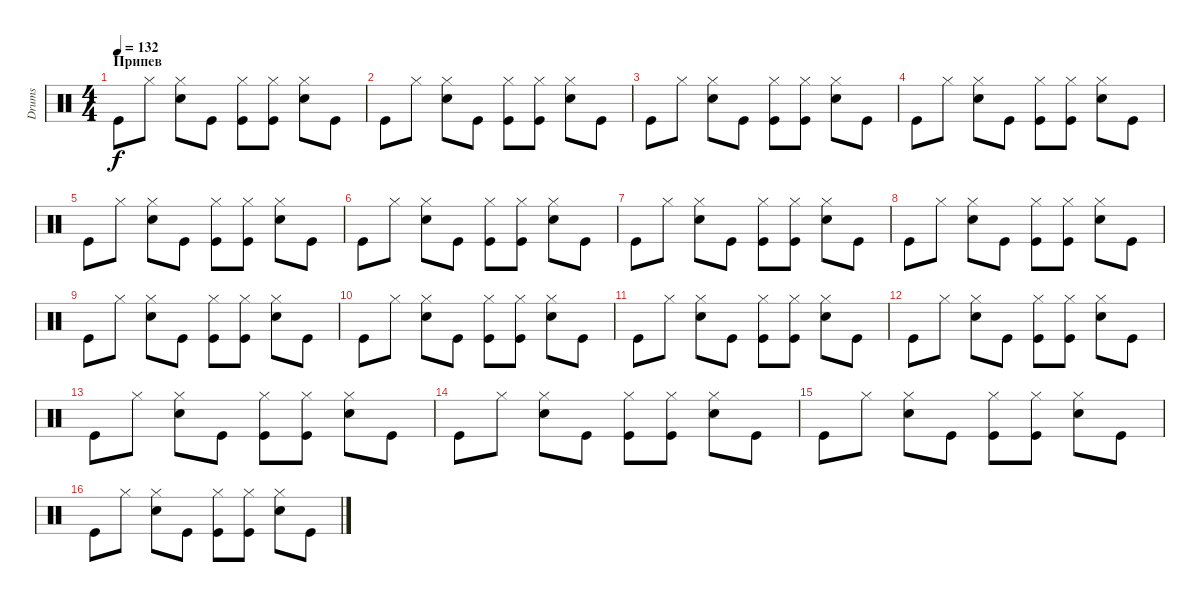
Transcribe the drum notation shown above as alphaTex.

\track ("Drums" "Drums") {instrument percussion}
\staff {score}
\articulation defaults
\ts (4 4)
\section ("" "Припев")
\tempo 132
\clef neutral
\ks c "Kick (hit)".8{dy f} "Hi-Hat (closed)".8
("Hi-Hat (closed)" "Snare (hit) 2").8 "Kick (hit)".8 ("Hi-Hat (closed)" "Kick (hit)").8 ("Hi-Hat (closed)" "Kick (hit)").8 ("Hi-Hat (closed)" "Snare (hit) 2").8 "Kick (hit)".8 |
"Kick (hit)".8 "Hi-Hat (closed)".8 ("Hi-Hat (closed)" "Snare (hit) 2").8 "Kick (hit)".8 ("Hi-Hat (closed)" "Kick (hit)").8 ("Hi-Hat (closed)" "Kick (hit)").8 ("Hi-Hat (closed)" "Snare (hit) 2").8 "Kick (hit)".8 |
"Kick (hit)".8 "Hi-Hat (closed)".8 ("Hi-Hat (closed)" "Snare (hit) 2").8 "Kick (hit)".8 ("Hi-Hat (closed)" "Kick (hit)").8 ("Hi-Hat (closed)" "Kick (hit)").8 ("Hi-Hat (closed)" "Snare (hit) 2").8 "Kick (hit)".8 |
"Kick (hit)".8 "Hi-Hat (closed)".8 ("Hi-Hat (closed)" "Snare (hit) 2").8 "Kick (hit)".8 ("Hi-Hat (closed)" "Kick (hit)").8 ("Hi-Hat (closed)" "Kick (hit)").8 ("Hi-Hat (closed)" "Snare (hit) 2").8 "Kick (hit)".8 |
"Kick (hit)".8 "Hi-Hat (closed)".8 ("Hi-Hat (closed)" "Snare (hit) 2").8 "Kick (hit)".8 ("Hi-Hat (closed)" "Kick (hit)").8 ("Hi-Hat (closed)" "Kick (hit)").8 ("Hi-Hat (closed)" "Snare (hit) 2").8 "Kick (hit)".8 |
"Kick (hit)".8 "Hi-Hat (closed)".8 ("Hi-Hat (closed)" "Snare (hit) 2").8 "Kick (hit)".8 ("Hi-Hat (closed)" "Kick (hit)").8 ("Hi-Hat (closed)" "Kick (hit)").8 ("Hi-Hat (closed)" "Snare (hit) 2").8 "Kick (hit)".8 |
"Kick (hit)".8 "Hi-Hat (closed)".8 ("Hi-Hat (closed)" "Snare (hit) 2").8 "Kick (hit)".8 ("Hi-Hat (closed)" "Kick (hit)").8 ("Hi-Hat (closed)" "Kick (hit)").8 ("Hi-Hat (closed)" "Snare (hit) 2").8 "Kick (hit)".8 |
"Kick (hit)".8 "Hi-Hat (closed)".8 ("Hi-Hat (closed)" "Snare (hit) 2").8 "Kick (hit)".8 ("Hi-Hat (closed)" "Kick (hit)").8 ("Hi-Hat (closed)" "Kick (hit)").8 ("Hi-Hat (closed)" "Snare (hit) 2").8 "Kick (hit)".8 |
"Kick (hit)".8 "Hi-Hat (closed)".8 ("Hi-Hat (closed)" "Snare (hit) 2").8 "Kick (hit)".8 ("Hi-Hat (closed)" "Kick (hit)").8 ("Hi-Hat (closed)" "Kick (hit)").8 ("Hi-Hat (closed)" "Snare (hit) 2").8 "Kick (hit)".8 |
"Kick (hit)".8 "Hi-Hat (closed)".8 ("Hi-Hat (closed)" "Snare (hit) 2").8 "Kick (hit)".8 ("Hi-Hat (closed)" "Kick (hit)").8 ("Hi-Hat (closed)" "Kick (hit)").8 ("Hi-Hat (closed)" "Snare (hit) 2").8 "Kick (hit)".8 |
"Kick (hit)".8 "Hi-Hat (closed)".8 ("Hi-Hat (closed)" "Snare (hit) 2").8 "Kick (hit)".8 ("Hi-Hat (closed)" "Kick (hit)").8 ("Hi-Hat (closed)" "Kick (hit)").8 ("Hi-Hat (closed)" "Snare (hit) 2").8 "Kick (hit)".8 |
"Kick (hit)".8 "Hi-Hat (closed)".8 ("Hi-Hat (closed)" "Snare (hit) 2").8 "Kick (hit)".8 ("Hi-Hat (closed)" "Kick (hit)").8 ("Hi-Hat (closed)" "Kick (hit)").8 ("Hi-Hat (closed)" "Snare (hit) 2").8 "Kick (hit)".8 |
"Kick (hit)".8 "Hi-Hat (closed)".8 ("Hi-Hat (closed)" "Snare (hit) 2").8 "Kick (hit)".8 ("Hi-Hat (closed)" "Kick (hit)").8 ("Hi-Hat (closed)" "Kick (hit)").8 ("Hi-Hat (closed)" "Snare (hit) 2").8 "Kick (hit)".8 |
"Kick (hit)".8 "Hi-Hat (closed)".8 ("Hi-Hat (closed)" "Snare (hit) 2").8 "Kick (hit)".8 ("Hi-Hat (closed)" "Kick (hit)").8 ("Hi-Hat (closed)" "Kick (hit)").8 ("Hi-Hat (closed)" "Snare (hit) 2").8 "Kick (hit)".8 |
"Kick (hit)".8 "Hi-Hat (closed)".8 ("Hi-Hat (closed)" "Snare (hit) 2").8 "Kick (hit)".8 ("Hi-Hat (closed)" "Kick (hit)").8 ("Hi-Hat (closed)" "Kick (hit)").8 ("Hi-Hat (closed)" "Snare (hit) 2").8 "Kick (hit)".8 |
"Kick (hit)".8 "Hi-Hat (closed)".8 ("Hi-Hat (closed)" "Snare (hit) 2").8 "Kick (hit)".8 ("Hi-Hat (closed)" "Kick (hit)").8 ("Hi-Hat (closed)" "Kick (hit)").8 ("Hi-Hat (closed)" "Snare (hit) 2").8 "Kick (hit)".8
